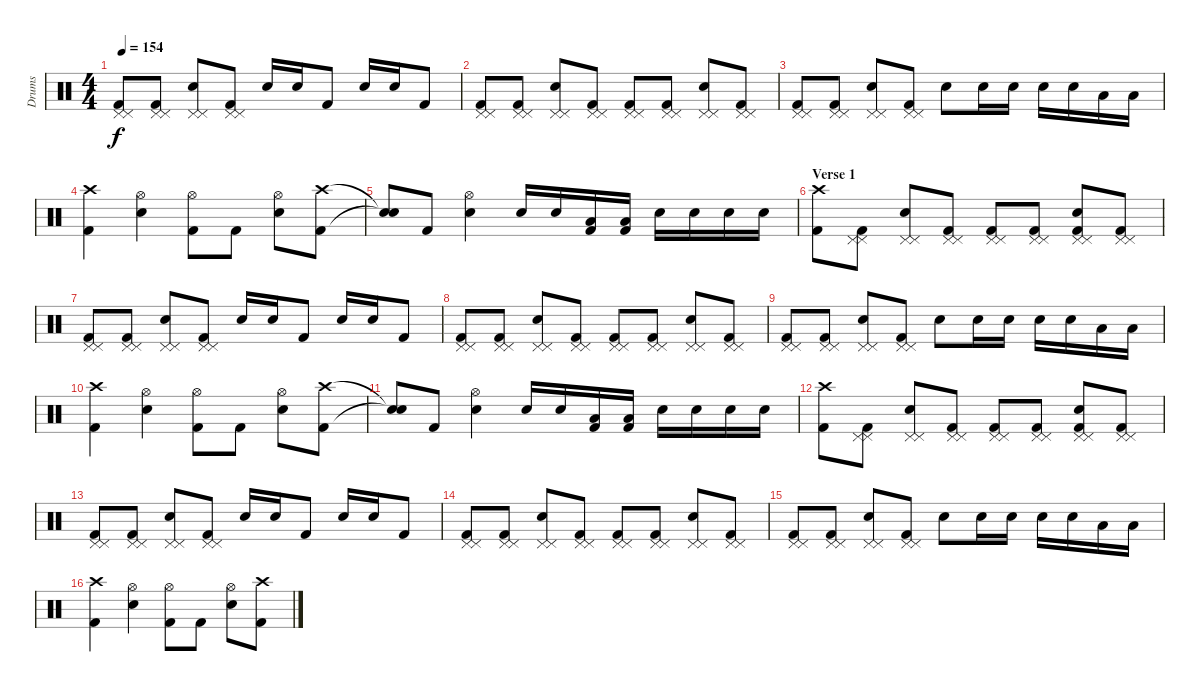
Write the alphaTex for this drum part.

\track ("Drums" "Drums") {instrument percussion}
\staff {score}
\articulation defaults
\ts (4 4)
\tempo 154
\clef neutral
\ks c
("Pedal Hi-Hat (hit)" "Pedal Hi-Hat (hit)" "Kick (hit) 2").8{dy f} ("Pedal Hi-Hat (hit)" "Pedal Hi-Hat (hit)" "Kick (hit) 2").8 ("Electric Snare (hit)" "Pedal Hi-Hat (hit)" "Pedal Hi-Hat (hit)").8 ("Pedal Hi-Hat (hit)" "Pedal Hi-Hat (hit)" "Kick (hit) 2").8 "Electric Snare (hit)".16 "Electric Snare (hit)".16 "Kick (hit) 2".8 "Electric Snare (hit)".16 "Electric Snare (hit)".16 "Kick (hit) 2".8 |
("Pedal Hi-Hat (hit)" "Pedal Hi-Hat (hit)" "Kick (hit) 2").8 ("Pedal Hi-Hat (hit)" "Pedal Hi-Hat (hit)" "Kick (hit) 2").8 ("Electric Snare (hit)" "Pedal Hi-Hat (hit)" "Pedal Hi-Hat (hit)").8 ("Pedal Hi-Hat (hit)" "Pedal Hi-Hat (hit)" "Kick (hit) 2").8 ("Pedal Hi-Hat (hit)" "Pedal Hi-Hat (hit)" "Kick (hit) 2").8 ("Pedal Hi-Hat (hit)" "Pedal Hi-Hat (hit)" "Kick (hit) 2").8 ("Electric Snare (hit)" "Pedal Hi-Hat (hit)" "Pedal Hi-Hat (hit)").8 ("Pedal Hi-Hat (hit)" "Pedal Hi-Hat (hit)" "Kick (hit) 2").8 |
("Pedal Hi-Hat (hit)" "Pedal Hi-Hat (hit)" "Kick (hit) 2").8 ("Pedal Hi-Hat (hit)" "Pedal Hi-Hat (hit)" "Kick (hit) 2").8 ("Electric Snare (hit)" "Pedal Hi-Hat (hit)" "Pedal Hi-Hat (hit)").8 ("Pedal Hi-Hat (hit)" "Pedal Hi-Hat (hit)" "Kick (hit) 2").8 "Electric Snare (hit)".8 "Electric Snare (hit)".16 "Electric Snare (hit)".16 "Electric Snare (hit)".16 "Electric Snare (hit)".16 "Low Tom (hit)".16 "Low Floor Tom (hit)".16 |
("Crash high (hit)" "Kick (hit) 2").4 ("Hi-Hat (open)" "Electric Snare (hit)").4 ("Hi-Hat (open)" "Kick (hit) 2").8 "Kick (hit) 2".8 ("Hi-Hat (open)" "Electric Snare (hit)").8 ("Crash high (hit)" "Kick (hit) 2").8 |
("Snare (hit)"{t} "Snare (hit)"{t}).8 "Kick (hit) 2".8 ("Hi-Hat (open)" "Electric Snare (hit)").4 "Electric Snare (hit)".16 "Electric Snare (hit)".16 ("Low Tom (hit)" "Kick (hit) 2").16 ("Low Floor Tom (hit)" "Kick (hit) 2").16 "Electric Snare (hit)".16 "Electric Snare (hit)".16 "Electric Snare (hit)".16 "Electric Snare (hit)".16 |
\section ("" "Verse 1")
("Crash high (hit)" "Kick (hit) 2").8 ("Pedal Hi-Hat (hit)" "Pedal Hi-Hat (hit)" "Kick (hit) 2").8 ("Electric Snare (hit)" "Pedal Hi-Hat (hit)" "Pedal Hi-Hat (hit)").8 ("Pedal Hi-Hat (hit)" "Pedal Hi-Hat (hit)" "Kick (hit) 2").8 ("Pedal Hi-Hat (hit)" "Pedal Hi-Hat (hit)" "Kick (hit) 2").8 ("Pedal Hi-Hat (hit)" "Pedal Hi-Hat (hit)" "Kick (hit) 2").8 ("Electric Snare (hit)" "Pedal Hi-Hat (hit)" "Pedal Hi-Hat (hit)" "Kick (hit) 2").8 ("Pedal Hi-Hat (hit)" "Pedal Hi-Hat (hit)" "Kick (hit) 2").8 |
("Pedal Hi-Hat (hit)" "Pedal Hi-Hat (hit)" "Kick (hit) 2").8 ("Pedal Hi-Hat (hit)" "Pedal Hi-Hat (hit)" "Kick (hit) 2").8 ("Electric Snare (hit)" "Pedal Hi-Hat (hit)" "Pedal Hi-Hat (hit)").8 ("Pedal Hi-Hat (hit)" "Pedal Hi-Hat (hit)" "Kick (hit) 2").8 "Electric Snare (hit)".16 "Electric Snare (hit)".16 "Kick (hit) 2".8 "Electric Snare (hit)".16 "Electric Snare (hit)".16 "Kick (hit) 2".8 |
("Pedal Hi-Hat (hit)" "Pedal Hi-Hat (hit)" "Kick (hit) 2").8 ("Pedal Hi-Hat (hit)" "Pedal Hi-Hat (hit)" "Kick (hit) 2").8 ("Electric Snare (hit)" "Pedal Hi-Hat (hit)" "Pedal Hi-Hat (hit)").8 ("Pedal Hi-Hat (hit)" "Pedal Hi-Hat (hit)" "Kick (hit) 2").8 ("Pedal Hi-Hat (hit)" "Pedal Hi-Hat (hit)" "Kick (hit) 2").8 ("Pedal Hi-Hat (hit)" "Pedal Hi-Hat (hit)" "Kick (hit) 2").8 ("Electric Snare (hit)" "Pedal Hi-Hat (hit)" "Pedal Hi-Hat (hit)").8 ("Pedal Hi-Hat (hit)" "Pedal Hi-Hat (hit)" "Kick (hit) 2").8 |
("Pedal Hi-Hat (hit)" "Pedal Hi-Hat (hit)" "Kick (hit) 2").8 ("Pedal Hi-Hat (hit)" "Pedal Hi-Hat (hit)" "Kick (hit) 2").8 ("Electric Snare (hit)" "Pedal Hi-Hat (hit)" "Pedal Hi-Hat (hit)").8 ("Pedal Hi-Hat (hit)" "Pedal Hi-Hat (hit)" "Kick (hit) 2").8 "Electric Snare (hit)".8 "Electric Snare (hit)".16 "Electric Snare (hit)".16 "Electric Snare (hit)".16 "Electric Snare (hit)".16 "Low Tom (hit)".16 "Low Floor Tom (hit)".16 |
("Crash high (hit)" "Kick (hit) 2").4 ("Hi-Hat (open)" "Electric Snare (hit)").4 ("Hi-Hat (open)" "Kick (hit) 2").8 "Kick (hit) 2".8 ("Hi-Hat (open)" "Electric Snare (hit)").8 ("Crash high (hit)" "Kick (hit) 2").8 |
("Snare (hit)"{t} "Snare (hit)"{t}).8 "Kick (hit) 2".8 ("Hi-Hat (open)" "Electric Snare (hit)").4 "Electric Snare (hit)".16 "Electric Snare (hit)".16 ("Low Tom (hit)" "Kick (hit) 2").16 ("Low Floor Tom (hit)" "Kick (hit) 2").16 "Electric Snare (hit)".16 "Electric Snare (hit)".16 "Electric Snare (hit)".16 "Electric Snare (hit)".16 |
("Crash high (hit)" "Kick (hit) 2").8 ("Pedal Hi-Hat (hit)" "Pedal Hi-Hat (hit)" "Kick (hit) 2").8 ("Electric Snare (hit)" "Pedal Hi-Hat (hit)" "Pedal Hi-Hat (hit)").8 ("Pedal Hi-Hat (hit)" "Pedal Hi-Hat (hit)" "Kick (hit) 2").8 ("Pedal Hi-Hat (hit)" "Pedal Hi-Hat (hit)" "Kick (hit) 2").8 ("Pedal Hi-Hat (hit)" "Pedal Hi-Hat (hit)" "Kick (hit) 2").8 ("Electric Snare (hit)" "Pedal Hi-Hat (hit)" "Pedal Hi-Hat (hit)" "Kick (hit) 2").8 ("Pedal Hi-Hat (hit)" "Pedal Hi-Hat (hit)" "Kick (hit) 2").8 |
("Pedal Hi-Hat (hit)" "Pedal Hi-Hat (hit)" "Kick (hit) 2").8 ("Pedal Hi-Hat (hit)" "Pedal Hi-Hat (hit)" "Kick (hit) 2").8 ("Electric Snare (hit)" "Pedal Hi-Hat (hit)" "Pedal Hi-Hat (hit)").8 ("Pedal Hi-Hat (hit)" "Pedal Hi-Hat (hit)" "Kick (hit) 2").8 "Electric Snare (hit)".16 "Electric Snare (hit)".16 "Kick (hit) 2".8 "Electric Snare (hit)".16 "Electric Snare (hit)".16 "Kick (hit) 2".8 |
("Pedal Hi-Hat (hit)" "Pedal Hi-Hat (hit)" "Kick (hit) 2").8 ("Pedal Hi-Hat (hit)" "Pedal Hi-Hat (hit)" "Kick (hit) 2").8 ("Electric Snare (hit)" "Pedal Hi-Hat (hit)" "Pedal Hi-Hat (hit)").8 ("Pedal Hi-Hat (hit)" "Pedal Hi-Hat (hit)" "Kick (hit) 2").8 ("Pedal Hi-Hat (hit)" "Pedal Hi-Hat (hit)" "Kick (hit) 2").8 ("Pedal Hi-Hat (hit)" "Pedal Hi-Hat (hit)" "Kick (hit) 2").8 ("Electric Snare (hit)" "Pedal Hi-Hat (hit)" "Pedal Hi-Hat (hit)").8 ("Pedal Hi-Hat (hit)" "Pedal Hi-Hat (hit)" "Kick (hit) 2").8 |
("Pedal Hi-Hat (hit)" "Pedal Hi-Hat (hit)" "Kick (hit) 2").8 ("Pedal Hi-Hat (hit)" "Pedal Hi-Hat (hit)" "Kick (hit) 2").8 ("Electric Snare (hit)" "Pedal Hi-Hat (hit)" "Pedal Hi-Hat (hit)").8 ("Pedal Hi-Hat (hit)" "Pedal Hi-Hat (hit)" "Kick (hit) 2").8 "Electric Snare (hit)".8 "Electric Snare (hit)".16 "Electric Snare (hit)".16 "Electric Snare (hit)".16 "Electric Snare (hit)".16 "Low Tom (hit)".16 "Low Floor Tom (hit)".16 |
("Crash high (hit)" "Kick (hit) 2").4 ("Hi-Hat (open)" "Electric Snare (hit)").4 ("Hi-Hat (open)" "Kick (hit) 2").8 "Kick (hit) 2".8 ("Hi-Hat (open)" "Electric Snare (hit)").8 ("Crash high (hit)" "Kick (hit) 2").8
